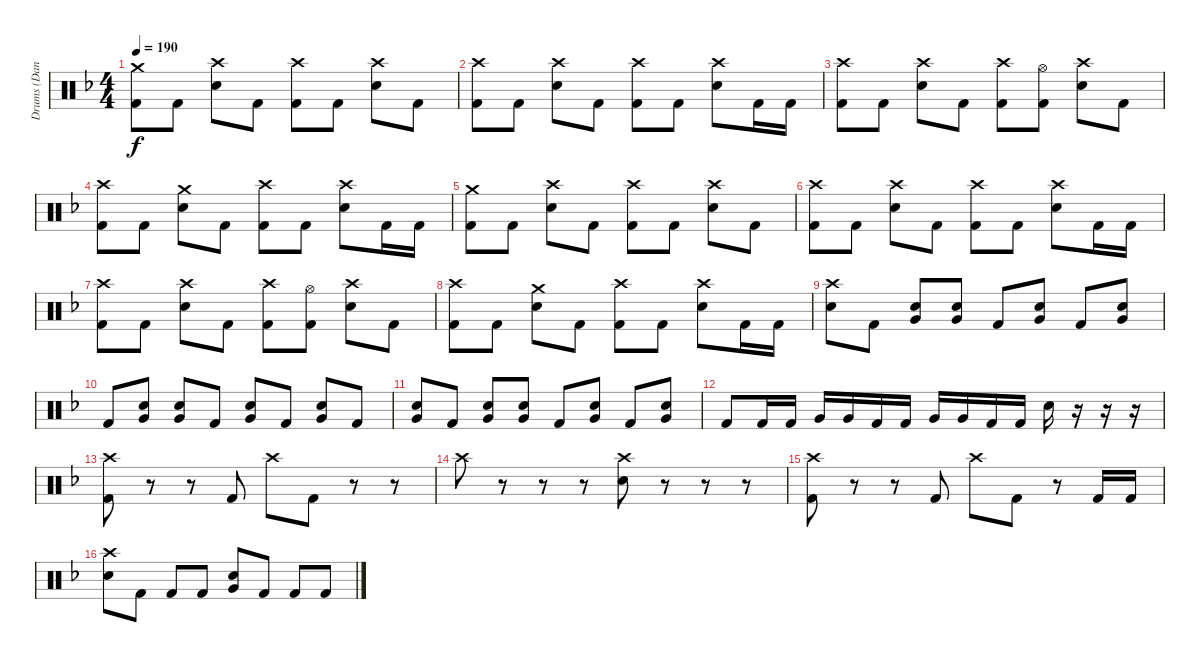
\track ("Drums (Daniel)" "Drums (Dan") {instrument percussion}
\staff {score}
\articulation defaults
\ts (4 4)
\tempo 190
\clef neutral
\ks dminor
("Crash medium (hit)" "Kick (hit) 2").8{dy f} "Kick (hit) 2".8 ("Crash high (hit)" "Electric Snare (hit)").8 "Kick (hit) 2".8 ("Crash high (hit)" "Kick (hit) 2").8 "Kick (hit) 2".8 ("Crash high (hit)" "Electric Snare (hit)").8 "Kick (hit) 2".8 |
("Crash high (hit)" "Kick (hit) 2").8 "Kick (hit) 2".8 ("Crash high (hit)" "Electric Snare (hit)").8 "Kick (hit) 2".8 ("Crash high (hit)" "Kick (hit) 2").8 "Kick (hit) 2".8 ("Crash high (hit)" "Electric Snare (hit)").8 "Kick (hit) 2".16 "Kick (hit) 2".16 |
("Crash high (hit)" "Kick (hit) 2").8 "Kick (hit) 2".8 ("Crash high (hit)" "Electric Snare (hit)").8 "Kick (hit) 2".8 ("Crash high (hit)" "Kick (hit) 2").8 ("Hi-Hat (open)" "Kick (hit) 2").8 ("Crash high (hit)" "Electric Snare (hit)").8 "Kick (hit) 2".8 |
("Crash high (hit)" "Kick (hit) 2").8 "Kick (hit) 2".8 ("Crash medium (hit)" "Electric Snare (hit)").8 "Kick (hit) 2".8 ("Crash high (hit)" "Kick (hit) 2").8 "Kick (hit) 2".8 ("Crash high (hit)" "Electric Snare (hit)").8 "Kick (hit) 2".16 "Kick (hit) 2".16 |
("Crash medium (hit)" "Kick (hit) 2").8 "Kick (hit) 2".8 ("Crash high (hit)" "Electric Snare (hit)").8 "Kick (hit) 2".8 ("Crash high (hit)" "Kick (hit) 2").8 "Kick (hit) 2".8 ("Crash high (hit)" "Electric Snare (hit)").8 "Kick (hit) 2".8 |
("Crash high (hit)" "Kick (hit) 2").8 "Kick (hit) 2".8 ("Crash high (hit)" "Electric Snare (hit)").8 "Kick (hit) 2".8 ("Crash high (hit)" "Kick (hit) 2").8 "Kick (hit) 2".8 ("Crash high (hit)" "Electric Snare (hit)").8 "Kick (hit) 2".16 "Kick (hit) 2".16 |
("Crash high (hit)" "Kick (hit) 2").8 "Kick (hit) 2".8 ("Crash high (hit)" "Electric Snare (hit)").8 "Kick (hit) 2".8 ("Crash high (hit)" "Kick (hit) 2").8 ("Hi-Hat (open)" "Kick (hit) 2").8 ("Crash high (hit)" "Electric Snare (hit)").8 "Kick (hit) 2".8 |
("Crash high (hit)" "Kick (hit) 2").8 "Kick (hit) 2".8 ("Crash medium (hit)" "Electric Snare (hit)").8 "Kick (hit) 2".8 ("Crash high (hit)" "Kick (hit) 2").8 "Kick (hit) 2".8 ("Crash high (hit)" "Electric Snare (hit)").8 "Kick (hit) 2".16 "Kick (hit) 2".16 |
("Crash high (hit)" "Electric Snare (hit)").8 "Kick (hit) 2".8 ("Very Low Tom (hit)" "Electric Snare (hit)").8 ("Very Low Tom (hit)" "Electric Snare (hit)").8 "Kick (hit) 2".8 ("Very Low Tom (hit)" "Electric Snare (hit)").8 "Kick (hit) 2".8 ("Very Low Tom (hit)" "Electric Snare (hit)").8 |
"Kick (hit) 2".8 ("Very Low Tom (hit)" "Electric Snare (hit)").8 ("Very Low Tom (hit)" "Electric Snare (hit)").8 "Kick (hit) 2".8 ("Very Low Tom (hit)" "Electric Snare (hit)").8 "Kick (hit) 2".8 ("Very Low Tom (hit)" "Electric Snare (hit)").8 "Kick (hit) 2".8 |
("Very Low Tom (hit)" "Electric Snare (hit)").8 "Kick (hit) 2".8 ("Very Low Tom (hit)" "Electric Snare (hit)").8 ("Very Low Tom (hit)" "Electric Snare (hit)").8 "Kick (hit) 2".8 ("Very Low Tom (hit)" "Electric Snare (hit)").8 "Kick (hit) 2".8 ("Very Low Tom (hit)" "Electric Snare (hit)").8 |
"Kick (hit) 2".8 "Kick (hit) 2".16 "Kick (hit) 2".16 "Very Low Tom (hit)".16 "Very Low Tom (hit)".16 "Kick (hit) 2".16 "Kick (hit) 2".16 "Very Low Tom (hit)".16 "Very Low Tom (hit)".16 "Kick (hit) 2".16 "Kick (hit) 2".16 "Electric Snare (hit)".16 r.16 r.16 r.16 |
("Crash high (hit)" "Kick (hit) 2").8 r.8 r.8 "Kick (hit) 2".8 "Crash high (hit)".8 "Kick (hit) 2".8 r.8 r.8 |
"Crash high (hit)".8 r.8 r.8 r.8 ("Crash high (hit)" "Electric Snare (hit)").8 r.8 r.8 r.8 |
("Crash high (hit)" "Kick (hit) 2").8 r.8 r.8 "Kick (hit) 2".8 "Crash high (hit)".8 "Kick (hit) 2".8 r.8 "Kick (hit) 2".16 "Kick (hit) 2".16 |
("Crash high (hit)" "Electric Snare (hit)").8 "Kick (hit) 2".8 "Kick (hit) 2".8 "Kick (hit) 2".8 ("Very Low Tom (hit)" "Electric Snare (hit)").8 "Kick (hit) 2".8 "Kick (hit) 2".8 "Kick (hit) 2".8
